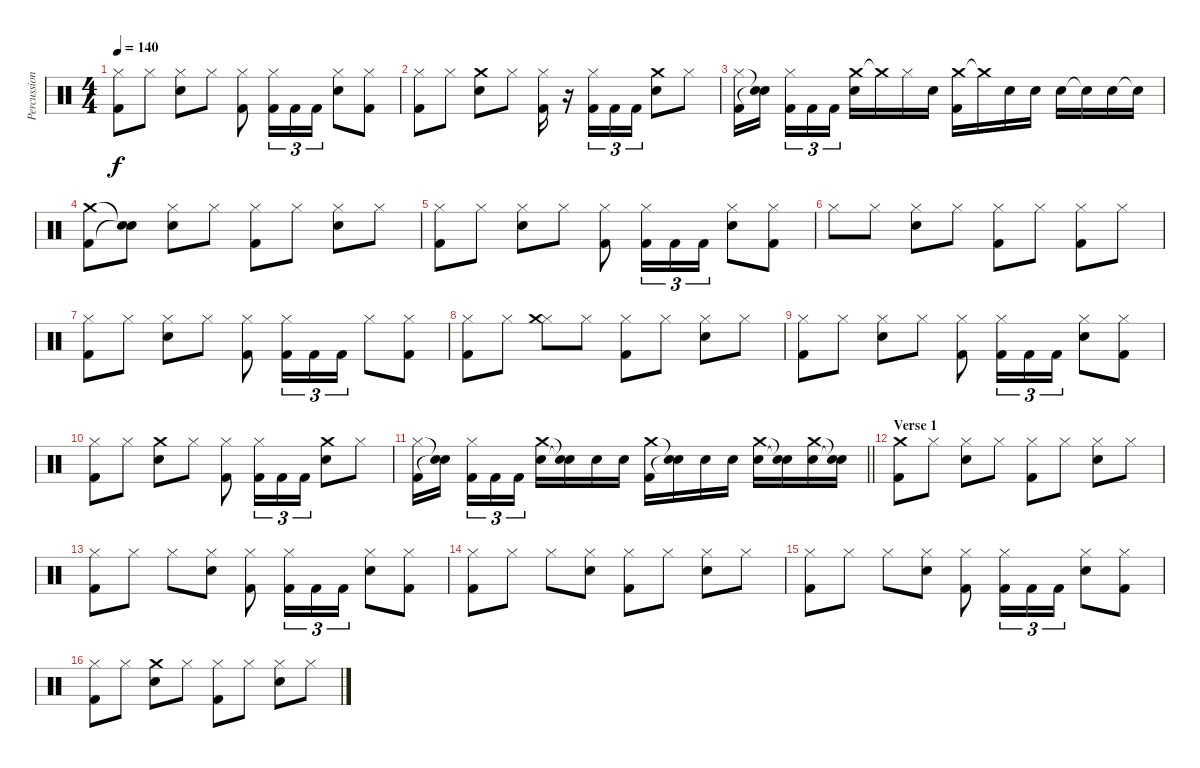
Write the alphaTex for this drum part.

\track ("Percussion" "Percussion") {instrument percussion}
\staff {score}
\articulation defaults
\ts (4 4)
\tempo 140
\clef neutral
\ks c
("Hi-Hat (closed)" "Kick (hit) 2").8{dy f} "Hi-Hat (closed)".8 ("Hi-Hat (closed)" "Snare (hit) 2").8 "Hi-Hat (closed)".8 ("Hi-Hat (closed)" "Kick (hit) 2").8 ("Hi-Hat (closed)" "Kick (hit) 2").16{tu (3 2)} "Kick (hit) 2".16{tu (3 2)} "Kick (hit) 2".16{tu (3 2)} ("Hi-Hat (closed)" "Snare (hit) 2").8 ("Hi-Hat (closed)" "Kick (hit) 2").8 |
("Hi-Hat (closed)" "Kick (hit) 2").8 "Hi-Hat (closed)".8 ("Crash medium (hit)" "Snare (hit) 2").8 "Hi-Hat (closed)".8 ("Hi-Hat (closed)" "Kick (hit) 2").16 r.16 ("Hi-Hat (closed)" "Kick (hit) 2").16{tu (3 2)} "Kick (hit) 2".16{tu (3 2)} "Kick (hit) 2".16{tu (3 2)} ("Crash medium (hit)" "Snare (hit) 2").8 "Hi-Hat (closed)".8 |
("Hi-Hat (closed)" "Kick (hit) 2").16 ("Snare (hit)"{t} "Snare (hit)"{t}).16{beam splitsecondary} ("Hi-Hat (closed)" "Kick (hit) 2").16{tu (3 2)} "Kick (hit) 2".16{tu (3 2)} "Kick (hit) 2".16{tu (3 2)} ("Crash medium (hit)" "Snare (hit) 2").16 "Crash medium (hit)"{t}.16 "Hi-Hat (closed)".16 "Snare (hit) 2".16 ("Crash medium (hit)" "Kick (hit) 2").16 "Crash medium (hit)"{t}.16 "Snare (hit) 2".16 "Snare (hit) 2".16 "Snare (hit) 2".16 "Snare (hit) 2"{t}.16 "Snare (hit) 2".16 "Snare (hit)"{t}.16 |
("Crash medium (hit)" "Kick (hit) 2").8 ("Snare (hit)"{t} "Snare (hit)"{t}).8 ("Hi-Hat (closed)" "Snare (hit) 2").8 "Hi-Hat (closed)".8 ("Hi-Hat (closed)" "Kick (hit) 2").8 "Hi-Hat (closed)".8 ("Hi-Hat (closed)" "Snare (hit) 2").8 "Hi-Hat (closed)".8 |
("Hi-Hat (closed)" "Kick (hit) 2").8 "Hi-Hat (closed)".8 ("Hi-Hat (closed)" "Snare (hit) 2").8 "Hi-Hat (closed)".8 ("Hi-Hat (closed)" "Kick (hit) 2").8 ("Hi-Hat (closed)" "Kick (hit) 2").16{tu (3 2)} "Kick (hit) 2".16{tu (3 2)} "Kick (hit) 2".16{tu (3 2)} ("Hi-Hat (closed)" "Snare (hit) 2").8 ("Hi-Hat (closed)" "Kick (hit) 2").8 |
"Hi-Hat (closed)".8 "Hi-Hat (closed)".8 ("Hi-Hat (closed)" "Snare (hit) 2").8 "Hi-Hat (closed)".8 ("Hi-Hat (closed)" "Kick (hit) 2").8 "Hi-Hat (closed)".8 ("Hi-Hat (closed)" "Kick (hit) 2").8 "Hi-Hat (closed)".8 |
("Hi-Hat (closed)" "Kick (hit) 2").8 "Hi-Hat (closed)".8 ("Hi-Hat (closed)" "Snare (hit) 2").8 "Hi-Hat (closed)".8 ("Hi-Hat (closed)" "Kick (hit) 2").8 ("Hi-Hat (closed)" "Kick (hit) 2").16{tu (3 2)} "Kick (hit) 2".16{tu (3 2)} "Kick (hit) 2".16{tu (3 2)} "Hi-Hat (closed)".8 ("Hi-Hat (closed)" "Kick (hit) 2").8 |
("Hi-Hat (closed)" "Kick (hit) 2").8 "Hi-Hat (closed)".8 ("Hi-Hat (closed)" "Crash medium (hit)").8 "Hi-Hat (closed)".8 ("Hi-Hat (closed)" "Kick (hit) 2").8 "Hi-Hat (closed)".8 ("Hi-Hat (closed)" "Snare (hit) 2").8 "Hi-Hat (closed)".8 |
("Hi-Hat (closed)" "Kick (hit) 2").8 "Hi-Hat (closed)".8 ("Hi-Hat (closed)" "Snare (hit) 2").8 "Hi-Hat (closed)".8 ("Hi-Hat (closed)" "Kick (hit) 2").8 ("Hi-Hat (closed)" "Kick (hit) 2").16{tu (3 2)} "Kick (hit) 2".16{tu (3 2)} "Kick (hit) 2".16{tu (3 2)} ("Hi-Hat (closed)" "Snare (hit) 2").8 ("Hi-Hat (closed)" "Kick (hit) 2").8 |
("Hi-Hat (closed)" "Kick (hit) 2").8 "Hi-Hat (closed)".8 ("Crash medium (hit)" "Snare (hit) 2").8 "Hi-Hat (closed)".8 ("Hi-Hat (closed)" "Kick (hit) 2").8 ("Hi-Hat (closed)" "Kick (hit) 2").16{tu (3 2)} "Kick (hit) 2".16{tu (3 2)} "Kick (hit) 2".16{tu (3 2)} ("Crash medium (hit)" "Snare (hit) 2").8 "Hi-Hat (closed)".8 |
\barLineRight lightlight
("Hi-Hat (closed)" "Kick (hit) 2").16 ("Snare (hit)"{t} "Snare (hit)"{t}).16{beam splitsecondary} ("Hi-Hat (closed)" "Kick (hit) 2").16{tu (3 2)} "Kick (hit) 2".16{tu (3 2)} "Kick (hit) 2".16{tu (3 2)} ("Crash medium (hit)" "Snare (hit) 2").16 ("Snare (hit)"{t} "Snare (hit)"{t}).16 "Snare (hit) 2".16 "Snare (hit) 2".16 ("Crash medium (hit)" "Kick (hit) 2").16 ("Snare (hit)"{t} "Snare (hit)"{t}).16 "Snare (hit) 2".16 "Snare (hit) 2".16 ("Crash medium (hit)" "Snare (hit) 2").16 ("Snare (hit)"{t} "Snare (hit)"{t}).16 ("Crash medium (hit)" "Snare (hit) 2").16 ("Snare (hit)"{t} "Snare (hit)"{t}).16 |
\section ("" "Verse 1")
("Crash medium (hit)" "Kick (hit) 2").8 "Hi-Hat (closed)".8 ("Hi-Hat (closed)" "Snare (hit) 2").8 "Hi-Hat (closed)".8 ("Hi-Hat (closed)" "Kick (hit) 2").8 "Hi-Hat (closed)".8 ("Hi-Hat (closed)" "Snare (hit) 2").8 "Hi-Hat (closed)".8 |
("Hi-Hat (closed)" "Kick (hit) 2").8 "Hi-Hat (closed)".8 "Hi-Hat (closed)".8 ("Hi-Hat (closed)" "Snare (hit) 2").8 ("Hi-Hat (closed)" "Kick (hit) 2").8 ("Hi-Hat (closed)" "Kick (hit) 2").16{tu (3 2)} "Kick (hit) 2".16{tu (3 2)} "Kick (hit) 2".16{tu (3 2)} ("Hi-Hat (closed)" "Snare (hit) 2").8 ("Hi-Hat (closed)" "Kick (hit) 2").8 |
("Hi-Hat (closed)" "Kick (hit) 2").8 "Hi-Hat (closed)".8 "Hi-Hat (closed)".8 ("Hi-Hat (closed)" "Snare (hit) 2").8 ("Hi-Hat (closed)" "Kick (hit) 2").8 "Hi-Hat (closed)".8 ("Hi-Hat (closed)" "Snare (hit) 2").8 "Hi-Hat (closed)".8 |
("Hi-Hat (closed)" "Kick (hit) 2").8 "Hi-Hat (closed)".8 "Hi-Hat (closed)".8 ("Hi-Hat (closed)" "Snare (hit) 2").8 ("Hi-Hat (closed)" "Kick (hit) 2").8 ("Hi-Hat (closed)" "Kick (hit) 2").16{tu (3 2)} "Kick (hit) 2".16{tu (3 2)} "Kick (hit) 2".16{tu (3 2)} ("Hi-Hat (closed)" "Snare (hit) 2").8 ("Hi-Hat (closed)" "Kick (hit) 2").8 |
("Hi-Hat (closed)" "Kick (hit) 2").8 "Hi-Hat (closed)".8 ("Crash medium (hit)" "Snare (hit) 2").8 "Hi-Hat (closed)".8 ("Hi-Hat (closed)" "Kick (hit) 2").8 "Hi-Hat (closed)".8 ("Hi-Hat (closed)" "Snare (hit) 2").8 "Hi-Hat (closed)".8
